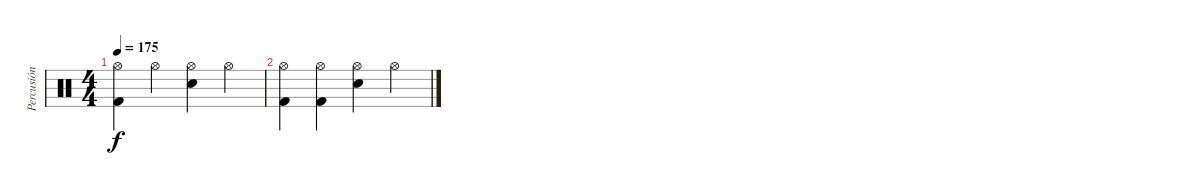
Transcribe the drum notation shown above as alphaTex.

\track ("Percusión" "Percusión") {instrument percussion}
\staff {score}
\articulation defaults
\ts (4 4)
\tempo 175
\clef neutral
\ks c
("Hi-Hat (open)" "Kick (hit) 2").4{dy f} "Hi-Hat (open)".4 ("Hi-Hat (open)" "Snare (hit) 2").4 "Hi-Hat (open)".4 |
("Hi-Hat (open)" "Kick (hit) 2").4 ("Hi-Hat (open)" "Kick (hit) 2").4 ("Hi-Hat (open)" "Snare (hit) 2").4 "Hi-Hat (open)".4
